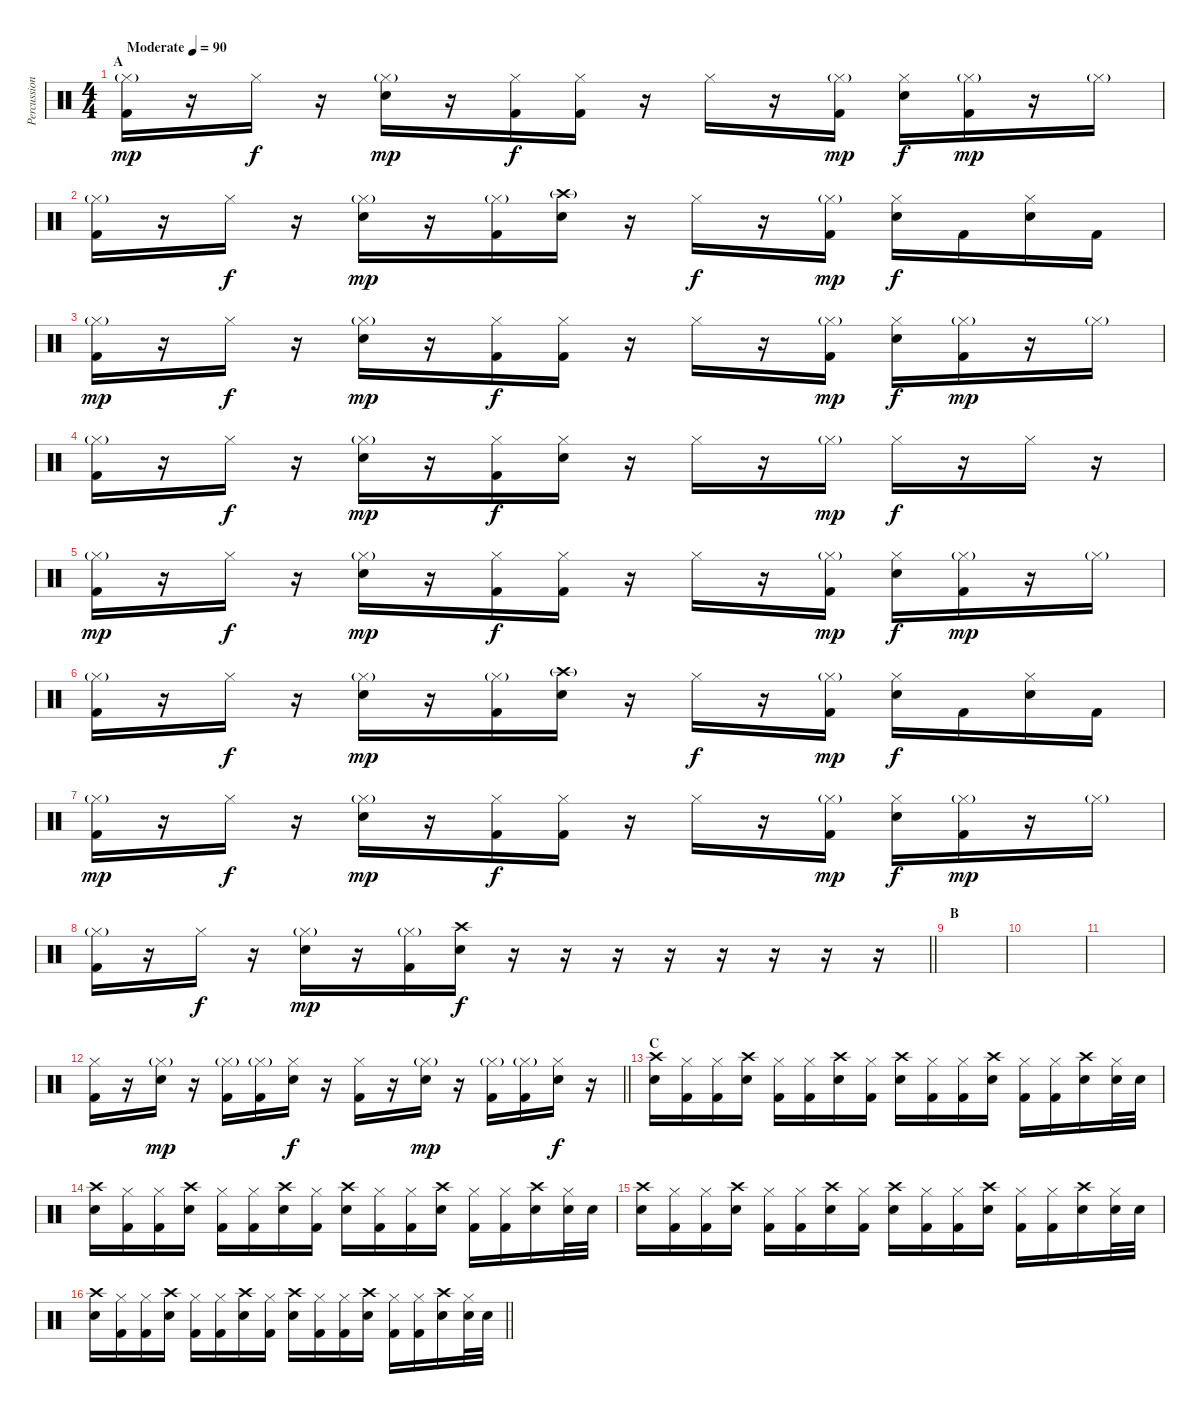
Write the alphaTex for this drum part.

\track ("Percussion" "Percussion") {instrument percussion}
\staff {score}
\articulation defaults
\ts (4 4)
\section ("" "A")
\tempo (90 "Moderate")
\clef neutral
\ks c
("Hi-Hat (closed)"{g} "Kick (hit) 2").16{dy mp} r.16 "Hi-Hat (closed)".16{dy f} r.16 ("Hi-Hat (closed)"{g} "Snare (hit) 2").16{dy mp} r.16 ("Hi-Hat (closed)" "Kick (hit) 2").16{dy f} ("Hi-Hat (closed)" "Kick (hit) 2").16 r.16 "Hi-Hat (closed)".16 r.16 ("Hi-Hat (closed)"{g} "Kick (hit) 2").16{dy mp} ("Hi-Hat (closed)" "Snare (hit) 2").16{dy f} ("Hi-Hat (closed)"{g} "Kick (hit) 2").16{dy mp} r.16 "Hi-Hat (closed)"{g}.16 |
("Hi-Hat (closed)"{g} "Kick (hit) 2").16 r.16 "Hi-Hat (closed)".16{dy f} r.16 ("Hi-Hat (closed)"{g} "Snare (hit) 2").16{dy mp} r.16 ("Hi-Hat (closed)"{g} "Kick (hit) 2").16 ("Crash high (hit)"{g} "Snare (hit) 2").16 r.16 "Hi-Hat (closed)".16{dy f} r.16 ("Hi-Hat (closed)"{g} "Kick (hit) 2").16{dy mp} ("Hi-Hat (closed)" "Snare (hit) 2").16{dy f} "Kick (hit) 2".16 ("Hi-Hat (closed)" "Snare (hit) 2").16 "Kick (hit) 2".16 |
("Hi-Hat (closed)"{g} "Kick (hit) 2").16{dy mp} r.16 "Hi-Hat (closed)".16{dy f} r.16 ("Hi-Hat (closed)"{g} "Snare (hit) 2").16{dy mp} r.16 ("Hi-Hat (closed)" "Kick (hit) 2").16{dy f} ("Hi-Hat (closed)" "Kick (hit) 2").16 r.16 "Hi-Hat (closed)".16 r.16 ("Hi-Hat (closed)"{g} "Kick (hit) 2").16{dy mp} ("Hi-Hat (closed)" "Snare (hit) 2").16{dy f} ("Hi-Hat (closed)"{g} "Kick (hit) 2").16{dy mp} r.16 "Hi-Hat (closed)"{g}.16 |
("Hi-Hat (closed)"{g} "Kick (hit) 2").16 r.16 "Hi-Hat (closed)".16{dy f} r.16 ("Hi-Hat (closed)"{g} "Snare (hit) 2").16{dy mp} r.16 ("Hi-Hat (closed)" "Kick (hit) 2").16{dy f} ("Hi-Hat (closed)" "Snare (hit) 2").16 r.16 "Hi-Hat (closed)".16 r.16 "Hi-Hat (closed)"{g}.16{dy mp} "Hi-Hat (closed)".16{dy f} r.16 "Hi-Hat (closed)".16 r.16 |
("Hi-Hat (closed)"{g} "Kick (hit) 2").16{dy mp} r.16 "Hi-Hat (closed)".16{dy f} r.16 ("Hi-Hat (closed)"{g} "Snare (hit) 2").16{dy mp} r.16 ("Hi-Hat (closed)" "Kick (hit) 2").16{dy f} ("Hi-Hat (closed)" "Kick (hit) 2").16 r.16 "Hi-Hat (closed)".16 r.16 ("Hi-Hat (closed)"{g} "Kick (hit) 2").16{dy mp} ("Hi-Hat (closed)" "Snare (hit) 2").16{dy f} ("Hi-Hat (closed)"{g} "Kick (hit) 2").16{dy mp} r.16 "Hi-Hat (closed)"{g}.16 |
("Hi-Hat (closed)"{g} "Kick (hit) 2").16 r.16 "Hi-Hat (closed)".16{dy f} r.16 ("Hi-Hat (closed)"{g} "Snare (hit) 2").16{dy mp} r.16 ("Hi-Hat (closed)"{g} "Kick (hit) 2").16 ("Crash high (hit)"{g} "Snare (hit) 2").16 r.16 "Hi-Hat (closed)".16{dy f} r.16 ("Hi-Hat (closed)"{g} "Kick (hit) 2").16{dy mp} ("Hi-Hat (closed)" "Snare (hit) 2").16{dy f} "Kick (hit) 2".16 ("Hi-Hat (closed)" "Snare (hit) 2").16 "Kick (hit) 2".16 |
("Hi-Hat (closed)"{g} "Kick (hit) 2").16{dy mp} r.16 "Hi-Hat (closed)".16{dy f} r.16 ("Hi-Hat (closed)"{g} "Snare (hit) 2").16{dy mp} r.16 ("Hi-Hat (closed)" "Kick (hit) 2").16{dy f} ("Hi-Hat (closed)" "Kick (hit) 2").16 r.16 "Hi-Hat (closed)".16 r.16 ("Hi-Hat (closed)"{g} "Kick (hit) 2").16{dy mp} ("Hi-Hat (closed)" "Snare (hit) 2").16{dy f} ("Hi-Hat (closed)"{g} "Kick (hit) 2").16{dy mp} r.16 "Hi-Hat (closed)"{g}.16 |
\barLineRight lightlight
("Hi-Hat (closed)"{g} "Kick (hit) 2").16 r.16 "Hi-Hat (closed)".16{dy f} r.16 ("Hi-Hat (closed)"{g} "Snare (hit) 2").16{dy mp} r.16 ("Hi-Hat (closed)"{g} "Kick (hit) 2").16 ("Crash high (hit)" "Snare (hit) 2").16{dy f} r.16 r.16 r.16 r.16 r.16 r.16 r.16 r.16{volume 0} |
\section ("" "B")
|
|
|
\barLineRight lightlight
("Hi-Hat (closed)" "Kick (hit) 2").16{volume 13} r.16 ("Hi-Hat (closed)"{g} "Snare (hit) 2").16{dy mp} r.16 ("Hi-Hat (closed)"{g} "Kick (hit) 2").16 ("Hi-Hat (closed)"{g} "Kick (hit) 2").16 ("Hi-Hat (closed)" "Snare (hit) 2").16{dy f} r.16 ("Hi-Hat (closed)" "Kick (hit) 2").16 r.16 ("Hi-Hat (closed)"{g} "Snare (hit) 2").16{dy mp} r.16 ("Hi-Hat (closed)"{g} "Kick (hit) 2").16 ("Hi-Hat (closed)"{g} "Kick (hit) 2").16 ("Hi-Hat (closed)" "Snare (hit) 2").16{dy f} r.16 |
\section ("" "C")
("Crash high (hit)" "Snare (hit) 2").16 ("Hi-Hat (closed)" "Kick (hit) 2").16 ("Hi-Hat (closed)" "Kick (hit) 2").16 ("Crash high (hit)" "Snare (hit) 2").16 ("Hi-Hat (closed)" "Kick (hit) 2").16 ("Hi-Hat (closed)" "Kick (hit) 2").16 ("Crash high (hit)" "Snare (hit) 2").16 ("Hi-Hat (closed)" "Kick (hit) 2").16 ("Crash high (hit)" "Snare (hit) 2").16 ("Hi-Hat (closed)" "Kick (hit) 2").16 ("Hi-Hat (closed)" "Kick (hit) 2").16 ("Crash high (hit)" "Snare (hit) 2").16 ("Hi-Hat (closed)" "Kick (hit) 2").16 ("Hi-Hat (closed)" "Kick (hit) 2").16 ("Crash high (hit)" "Snare (hit) 2").16 ("Hi-Hat (closed)" "Snare (hit) 2").32 "Snare (hit) 2".32 |
("Crash high (hit)" "Snare (hit) 2").16 ("Hi-Hat (closed)" "Kick (hit) 2").16 ("Hi-Hat (closed)" "Kick (hit) 2").16 ("Crash high (hit)" "Snare (hit) 2").16 ("Hi-Hat (closed)" "Kick (hit) 2").16 ("Hi-Hat (closed)" "Kick (hit) 2").16 ("Crash high (hit)" "Snare (hit) 2").16 ("Hi-Hat (closed)" "Kick (hit) 2").16 ("Crash high (hit)" "Snare (hit) 2").16 ("Hi-Hat (closed)" "Kick (hit) 2").16 ("Hi-Hat (closed)" "Kick (hit) 2").16 ("Crash high (hit)" "Snare (hit) 2").16 ("Hi-Hat (closed)" "Kick (hit) 2").16 ("Hi-Hat (closed)" "Kick (hit) 2").16 ("Crash high (hit)" "Snare (hit) 2").16 ("Hi-Hat (closed)" "Snare (hit) 2").32 "Snare (hit) 2".32 |
("Crash high (hit)" "Snare (hit) 2").16 ("Hi-Hat (closed)" "Kick (hit) 2").16 ("Hi-Hat (closed)" "Kick (hit) 2").16 ("Crash high (hit)" "Snare (hit) 2").16 ("Hi-Hat (closed)" "Kick (hit) 2").16 ("Hi-Hat (closed)" "Kick (hit) 2").16 ("Crash high (hit)" "Snare (hit) 2").16 ("Hi-Hat (closed)" "Kick (hit) 2").16 ("Crash high (hit)" "Snare (hit) 2").16 ("Hi-Hat (closed)" "Kick (hit) 2").16 ("Hi-Hat (closed)" "Kick (hit) 2").16 ("Crash high (hit)" "Snare (hit) 2").16 ("Hi-Hat (closed)" "Kick (hit) 2").16 ("Hi-Hat (closed)" "Kick (hit) 2").16 ("Crash high (hit)" "Snare (hit) 2").16 ("Hi-Hat (closed)" "Snare (hit) 2").32 "Snare (hit) 2".32 |
\barLineRight lightlight
("Crash high (hit)" "Snare (hit) 2").16 ("Hi-Hat (closed)" "Kick (hit) 2").16 ("Hi-Hat (closed)" "Kick (hit) 2").16 ("Crash high (hit)" "Snare (hit) 2").16 ("Hi-Hat (closed)" "Kick (hit) 2").16 ("Hi-Hat (closed)" "Kick (hit) 2").16 ("Crash high (hit)" "Snare (hit) 2").16 ("Hi-Hat (closed)" "Kick (hit) 2").16 ("Crash high (hit)" "Snare (hit) 2").16 ("Hi-Hat (closed)" "Kick (hit) 2").16 ("Hi-Hat (closed)" "Kick (hit) 2").16 ("Crash high (hit)" "Snare (hit) 2").16 ("Hi-Hat (closed)" "Kick (hit) 2").16 ("Hi-Hat (closed)" "Kick (hit) 2").16 ("Crash high (hit)" "Snare (hit) 2").16 ("Hi-Hat (closed)" "Snare (hit) 2").32 "Snare (hit) 2".32
